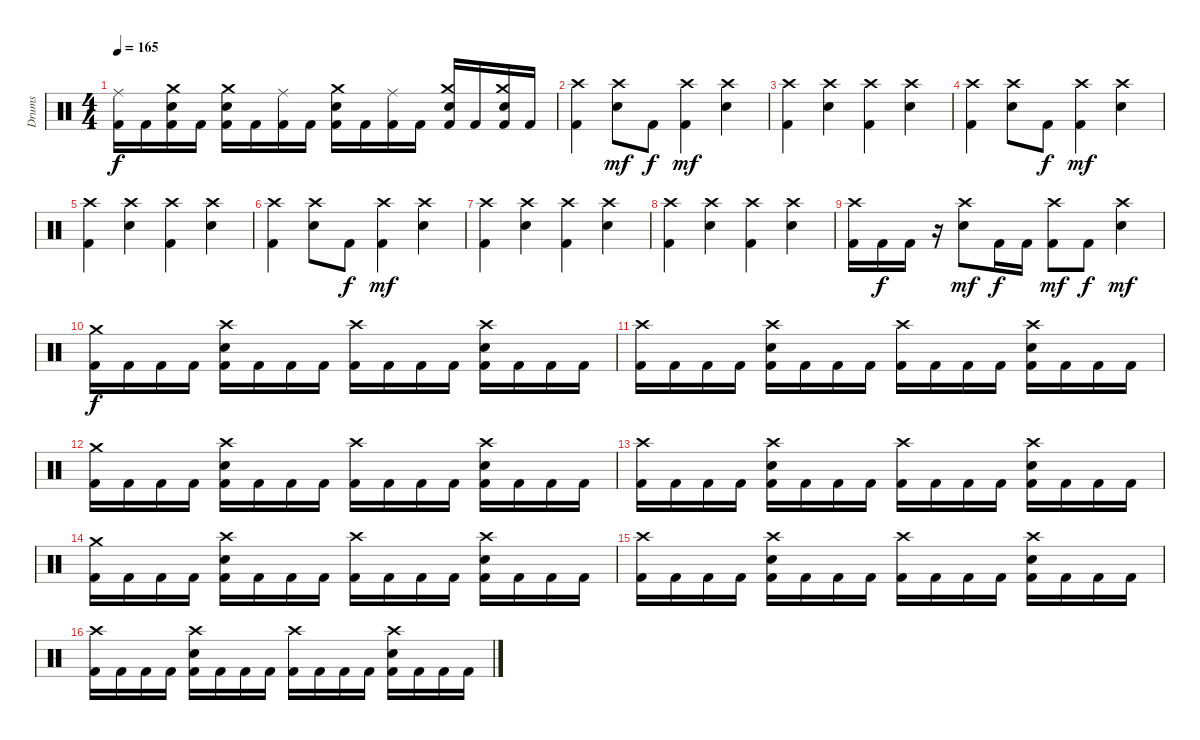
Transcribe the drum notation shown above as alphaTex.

\track ("Drums" "Drums") {instrument percussion}
\staff {score}
\articulation defaults
\ts (4 4)
\tempo 165
\clef neutral
\ks c
("Ride (middle)" "Kick (hit) 2").16{dy f} "Kick (hit) 2".16 ("Crash medium (hit)" "Electric Snare (hit)" "Kick (hit) 2").16 "Kick (hit) 2".16 ("Crash medium (hit)" "Electric Snare (hit)" "Kick (hit) 2").16 "Kick (hit) 2".16 ("Ride (middle)" "Kick (hit) 2").16 "Kick (hit) 2".16 ("Crash medium (hit)" "Electric Snare (hit)" "Kick (hit) 2").16 "Kick (hit) 2".16 ("Ride (middle)" "Kick (hit) 2").16 "Kick (hit) 2".16 ("Crash medium (hit)" "Electric Snare (hit)" "Kick (hit) 2").16 "Kick (hit) 2".16 ("Crash medium (hit)" "Electric Snare (hit)" "Kick (hit) 2").16 "Kick (hit) 2".16 |
("Crash high (hit)" "Kick (hit) 2").4 ("Crash high (hit)" "Electric Snare (hit)").8{dy mf} "Kick (hit) 2".8{dy f} ("Crash high (hit)" "Kick (hit) 2").4{dy mf} ("Crash high (hit)" "Electric Snare (hit)").4 |
("Crash high (hit)" "Kick (hit) 2").4 ("Crash high (hit)" "Electric Snare (hit)").4 ("Crash high (hit)" "Kick (hit) 2").4 ("Crash high (hit)" "Electric Snare (hit)").4 |
("Crash high (hit)" "Kick (hit) 2").4 ("Crash high (hit)" "Electric Snare (hit)").8 "Kick (hit) 2".8{dy f} ("Crash high (hit)" "Kick (hit) 2").4{dy mf} ("Crash high (hit)" "Electric Snare (hit)").4 |
("Crash high (hit)" "Kick (hit) 2").4 ("Crash high (hit)" "Electric Snare (hit)").4 ("Crash high (hit)" "Kick (hit) 2").4 ("Crash high (hit)" "Electric Snare (hit)").4 |
("Crash high (hit)" "Kick (hit) 2").4 ("Crash high (hit)" "Electric Snare (hit)").8 "Kick (hit) 2".8{dy f} ("Crash high (hit)" "Kick (hit) 2").4{dy mf} ("Crash high (hit)" "Electric Snare (hit)").4 |
("Crash high (hit)" "Kick (hit) 2").4 ("Crash high (hit)" "Electric Snare (hit)").4 ("Crash high (hit)" "Kick (hit) 2").4 ("Crash high (hit)" "Electric Snare (hit)").4 |
("Crash high (hit)" "Kick (hit) 2").4 ("Crash high (hit)" "Electric Snare (hit)").4 ("Crash high (hit)" "Kick (hit) 2").4 ("Crash high (hit)" "Electric Snare (hit)").4 |
("Crash high (hit)" "Kick (hit) 2").16 "Kick (hit) 2".16{dy f} "Kick (hit) 2".16 r.16 ("Crash high (hit)" "Electric Snare (hit)").8{dy mf} "Kick (hit) 2".16{dy f} "Kick (hit) 2".16 ("Crash high (hit)" "Kick (hit) 2").8{dy mf} "Kick (hit) 2".8{dy f} ("Crash high (hit)" "Electric Snare (hit)").4{dy mf} |
("Crash medium (hit)" "Kick (hit) 2").16{dy f} "Kick (hit) 2".16 "Kick (hit) 2".16 "Kick (hit) 2".16 ("Crash high (hit)" "Electric Snare (hit)" "Kick (hit) 2").16 "Kick (hit) 2".16 "Kick (hit) 2".16 "Kick (hit) 2".16 ("Crash high (hit)" "Kick (hit) 2").16 "Kick (hit) 2".16 "Kick (hit) 2".16 "Kick (hit) 2".16 ("Crash high (hit)" "Electric Snare (hit)" "Kick (hit) 2").16 "Kick (hit) 2".16 "Kick (hit) 2".16 "Kick (hit) 2".16 |
("Crash high (hit)" "Kick (hit) 2").16 "Kick (hit) 2".16 "Kick (hit) 2".16 "Kick (hit) 2".16 ("Crash high (hit)" "Electric Snare (hit)" "Kick (hit) 2").16 "Kick (hit) 2".16 "Kick (hit) 2".16 "Kick (hit) 2".16 ("Crash high (hit)" "Kick (hit) 2").16 "Kick (hit) 2".16 "Kick (hit) 2".16 "Kick (hit) 2".16 ("Crash high (hit)" "Electric Snare (hit)" "Kick (hit) 2").16 "Kick (hit) 2".16 "Kick (hit) 2".16 "Kick (hit) 2".16 |
("Crash medium (hit)" "Kick (hit) 2").16 "Kick (hit) 2".16 "Kick (hit) 2".16 "Kick (hit) 2".16 ("Crash high (hit)" "Electric Snare (hit)" "Kick (hit) 2").16 "Kick (hit) 2".16 "Kick (hit) 2".16 "Kick (hit) 2".16 ("Crash high (hit)" "Kick (hit) 2").16 "Kick (hit) 2".16 "Kick (hit) 2".16 "Kick (hit) 2".16 ("Crash high (hit)" "Electric Snare (hit)" "Kick (hit) 2").16 "Kick (hit) 2".16 "Kick (hit) 2".16 "Kick (hit) 2".16 |
("Crash high (hit)" "Kick (hit) 2").16 "Kick (hit) 2".16 "Kick (hit) 2".16 "Kick (hit) 2".16 ("Crash high (hit)" "Electric Snare (hit)" "Kick (hit) 2").16 "Kick (hit) 2".16 "Kick (hit) 2".16 "Kick (hit) 2".16 ("Crash high (hit)" "Kick (hit) 2").16 "Kick (hit) 2".16 "Kick (hit) 2".16 "Kick (hit) 2".16 ("Crash high (hit)" "Electric Snare (hit)" "Kick (hit) 2").16 "Kick (hit) 2".16 "Kick (hit) 2".16 "Kick (hit) 2".16 |
("Crash medium (hit)" "Kick (hit) 2").16 "Kick (hit) 2".16 "Kick (hit) 2".16 "Kick (hit) 2".16 ("Crash high (hit)" "Electric Snare (hit)" "Kick (hit) 2").16 "Kick (hit) 2".16 "Kick (hit) 2".16 "Kick (hit) 2".16 ("Crash high (hit)" "Kick (hit) 2").16 "Kick (hit) 2".16 "Kick (hit) 2".16 "Kick (hit) 2".16 ("Crash high (hit)" "Electric Snare (hit)" "Kick (hit) 2").16 "Kick (hit) 2".16 "Kick (hit) 2".16 "Kick (hit) 2".16 |
("Crash high (hit)" "Kick (hit) 2").16 "Kick (hit) 2".16 "Kick (hit) 2".16 "Kick (hit) 2".16 ("Crash high (hit)" "Electric Snare (hit)" "Kick (hit) 2").16 "Kick (hit) 2".16 "Kick (hit) 2".16 "Kick (hit) 2".16 ("Crash high (hit)" "Kick (hit) 2").16 "Kick (hit) 2".16 "Kick (hit) 2".16 "Kick (hit) 2".16 ("Crash high (hit)" "Electric Snare (hit)" "Kick (hit) 2").16 "Kick (hit) 2".16 "Kick (hit) 2".16 "Kick (hit) 2".16 |
("Crash high (hit)" "Kick (hit) 2").16 "Kick (hit) 2".16 "Kick (hit) 2".16 "Kick (hit) 2".16 ("Crash high (hit)" "Electric Snare (hit)" "Kick (hit) 2").16 "Kick (hit) 2".16 "Kick (hit) 2".16 "Kick (hit) 2".16 ("Crash high (hit)" "Kick (hit) 2").16 "Kick (hit) 2".16 "Kick (hit) 2".16 "Kick (hit) 2".16 ("Crash high (hit)" "Electric Snare (hit)" "Kick (hit) 2").16 "Kick (hit) 2".16 "Kick (hit) 2".16 "Kick (hit) 2".16
